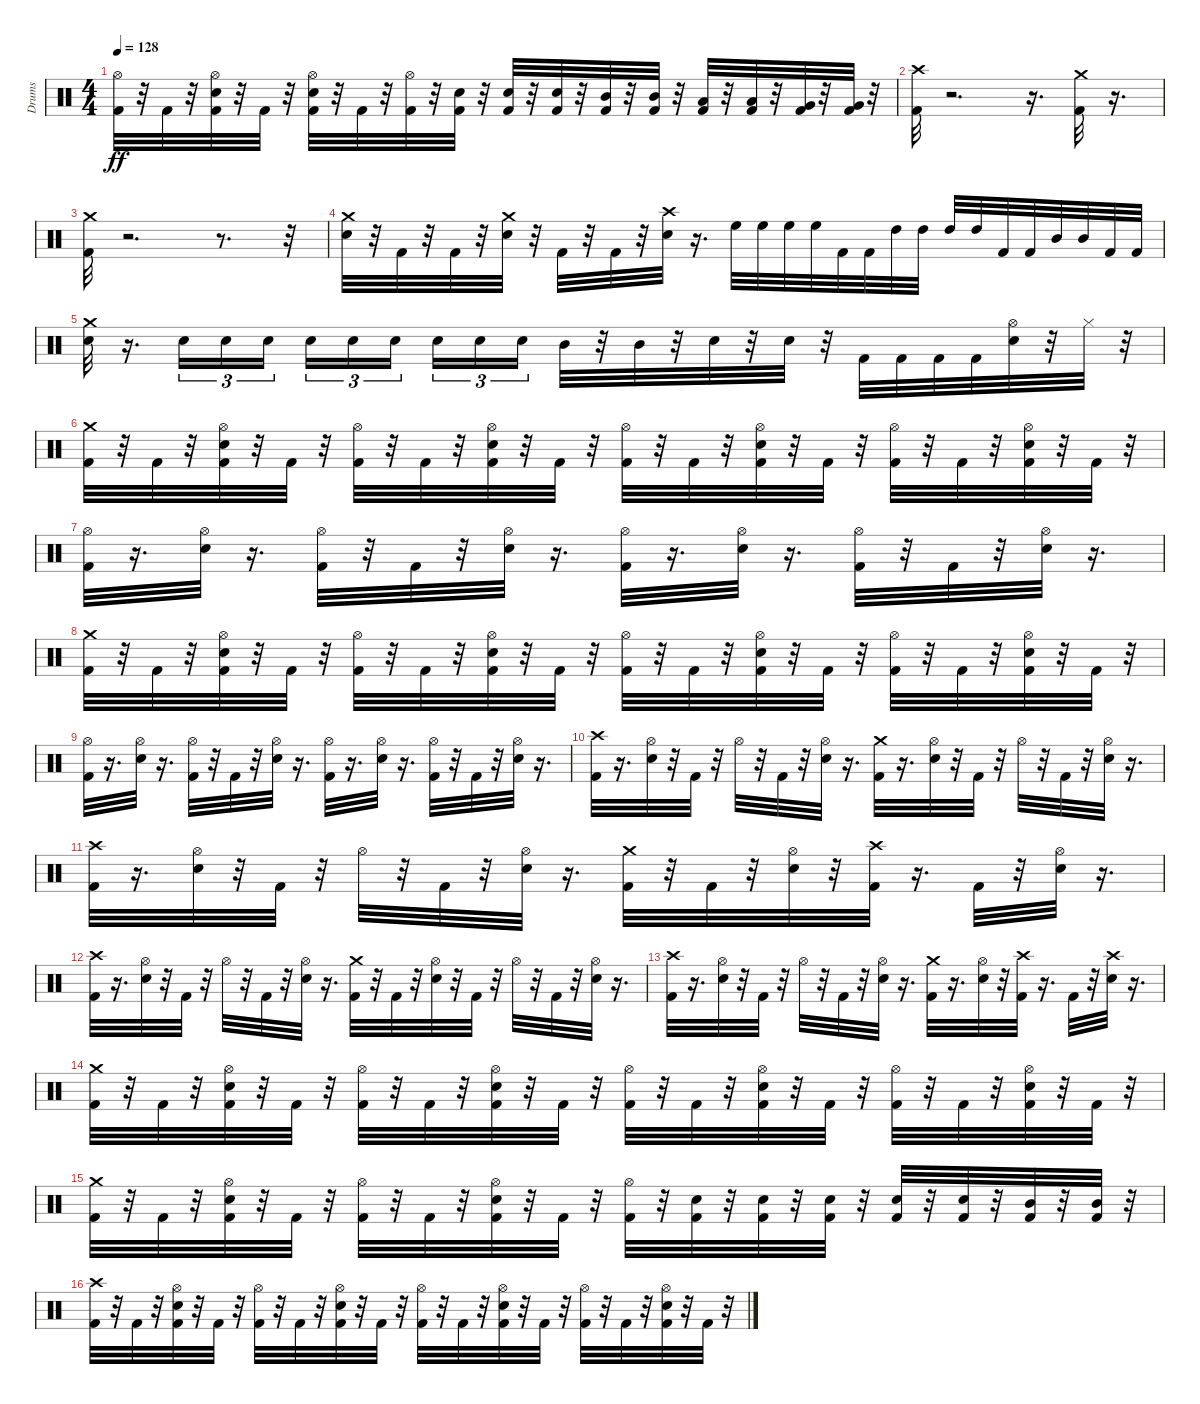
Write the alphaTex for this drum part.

\track ("Drums" "Drums") {instrument percussion}
\staff {score}
\articulation defaults
\ts (4 4)
\tempo 128
\clef neutral
\ks c
("Hi-Hat (open)" "Kick (hit) 2").32{dy ff} r.32 "Kick (hit) 2".32 r.32 ("Kick (hit) 2" "Hi-Hat (open)" "Snare (hit) 2").32 r.32 "Kick (hit) 2".32 r.32 ("Hi-Hat (open)" "Snare (hit) 2" "Kick (hit) 2").32 r.32 "Kick (hit) 2".32 r.32 ("Hi-Hat (open)" "Kick (hit) 2").32 r.32 ("Snare (hit) 2" "Kick (hit) 2").32 r.32 ("Snare (hit) 2" "Kick (hit) 2").32 r.32 ("Kick (hit) 2" "Snare (hit) 2").32 r.32 ("Mid Tom (hit)" "Kick (hit) 2").32 r.32 ("Kick (hit) 2" "Mid Tom (hit)").32 r.32 ("Kick (hit) 2" "Low Tom (hit)").32 r.32 ("Low Tom (hit)" "Kick (hit) 2").32 r.32 ("Kick (hit) 2" "Very Low Tom (hit)").32 r.32 ("Kick (hit) 2" "Very Low Tom (hit)").32 r.32 |
("Kick (hit) 2" "Crash high (hit)").32 r.2{d} r.16{d} ("Kick (hit) 2" "Crash medium (hit)").32 r.16{d} |
("Kick (hit) 2" "Crash medium (hit)").32 r.2{d} r.8{d} r.32 |
("Snare (hit) 2" "Crash medium (hit)").32 r.32 "Kick (hit) 2".32 r.32 "Kick (hit) 2".32 r.32 ("Snare (hit) 2" "Crash medium (hit)").32 r.32 "Kick (hit) 2".32 r.32 "Kick (hit) 2".32 r.32 ("Crash high (hit)" "Snare (hit) 2").32 r.16{d} "High Floor Tom (hit)".32 "High Floor Tom (hit)".32 "High Floor Tom (hit)".32 "High Floor Tom (hit)".32 "Kick (hit) 2".32 "Kick (hit) 2".32 "High Tom (hit)".32 "High Tom (hit)".32 "High Tom (hit)".32 "High Tom (hit)".32 "Kick (hit) 2".32 "Kick (hit) 2".32 "Mid Tom (hit)".32 "Mid Tom (hit)".32 "Kick (hit) 2".32 "Kick (hit) 2".32 |
("Crash medium (hit)" "Snare (hit) 2").32 r.16{d} "Snare (hit) 2".16{tu (3 2)} "Snare (hit) 2".16{tu (3 2)} "Snare (hit) 2".16{tu (3 2)} "Snare (hit) 2".16{tu (3 2)} "Snare (hit) 2".16{tu (3 2)} "Snare (hit) 2".16{tu (3 2)} "Snare (hit) 2".16{tu (3 2)} "Snare (hit) 2".16{tu (3 2)} "Snare (hit) 2".16{tu (3 2)} "Mid Tom (hit)".32 r.32 "Mid Tom (hit)".32 r.32 "Snare (hit) 2".32 r.32 "Snare (hit) 2".32 r.32 "Kick (hit) 2".32 "Kick (hit) 2".32 "Kick (hit) 2".32 "Kick (hit) 2".32 ("Snare (hit) 2" "Hi-Hat (open)").32 r.32 "Hi-Hat (closed)".32 r.32 |
("Crash medium (hit)" "Kick (hit) 2").32 r.32 "Kick (hit) 2".32 r.32 ("Snare (hit) 2" "Kick (hit) 2" "Hi-Hat (open)").32 r.32 "Kick (hit) 2".32 r.32 ("Kick (hit) 2" "Hi-Hat (open)").32 r.32 "Kick (hit) 2".32 r.32 ("Snare (hit) 2" "Kick (hit) 2" "Hi-Hat (open)").32 r.32 "Kick (hit) 2".32 r.32 ("Kick (hit) 2" "Hi-Hat (open)").32 r.32 "Kick (hit) 2".32 r.32 ("Snare (hit) 2" "Kick (hit) 2" "Hi-Hat (open)").32 r.32 "Kick (hit) 2".32 r.32 ("Kick (hit) 2" "Hi-Hat (open)").32 r.32 "Kick (hit) 2".32 r.32 ("Snare (hit) 2" "Kick (hit) 2" "Hi-Hat (open)").32 r.32 "Kick (hit) 2".32 r.32 |
("Hi-Hat (open)" "Kick (hit) 2").32 r.16{d} ("Snare (hit) 2" "Hi-Hat (open)").32 r.16{d} ("Kick (hit) 2" "Hi-Hat (open)").32 r.32 "Kick (hit) 2".32 r.32 ("Snare (hit) 2" "Hi-Hat (open)").32 r.16{d} ("Kick (hit) 2" "Hi-Hat (open)").32 r.16{d} ("Snare (hit) 2" "Hi-Hat (open)").32 r.16{d} ("Hi-Hat (open)" "Kick (hit) 2").32 r.32 "Kick (hit) 2".32 r.32 ("Snare (hit) 2" "Hi-Hat (open)").32 r.16{d} |
("Crash medium (hit)" "Kick (hit) 2").32 r.32 "Kick (hit) 2".32 r.32 ("Snare (hit) 2" "Kick (hit) 2" "Hi-Hat (open)").32 r.32 "Kick (hit) 2".32 r.32 ("Kick (hit) 2" "Hi-Hat (open)").32 r.32 "Kick (hit) 2".32 r.32 ("Snare (hit) 2" "Kick (hit) 2" "Hi-Hat (open)").32 r.32 "Kick (hit) 2".32 r.32 ("Kick (hit) 2" "Hi-Hat (open)").32 r.32 "Kick (hit) 2".32 r.32 ("Snare (hit) 2" "Kick (hit) 2" "Hi-Hat (open)").32 r.32 "Kick (hit) 2".32 r.32 ("Kick (hit) 2" "Hi-Hat (open)").32 r.32 "Kick (hit) 2".32 r.32 ("Snare (hit) 2" "Kick (hit) 2" "Hi-Hat (open)").32 r.32 "Kick (hit) 2".32 r.32 |
("Hi-Hat (open)" "Kick (hit) 2").32 r.16{d} ("Snare (hit) 2" "Hi-Hat (open)").32 r.16{d} ("Kick (hit) 2" "Hi-Hat (open)").32 r.32 "Kick (hit) 2".32 r.32 ("Snare (hit) 2" "Hi-Hat (open)").32 r.16{d} ("Kick (hit) 2" "Hi-Hat (open)").32 r.16{d} ("Snare (hit) 2" "Hi-Hat (open)").32 r.16{d} ("Kick (hit) 2" "Hi-Hat (open)").32 r.32 "Kick (hit) 2".32 r.32 ("Snare (hit) 2" "Hi-Hat (open)").32 r.16{d} |
("Kick (hit) 2" "Crash high (hit)").32 r.16{d} ("Hi-Hat (open)" "Snare (hit) 2").32 r.32 "Kick (hit) 2".32 r.32 "Hi-Hat (open)".32 r.32 "Kick (hit) 2".32 r.32 ("Hi-Hat (open)" "Snare (hit) 2").32 r.16{d} ("Crash medium (hit)" "Kick (hit) 2").32 r.16{d} ("Hi-Hat (open)" "Snare (hit) 2").32 r.32 "Kick (hit) 2".32 r.32 "Hi-Hat (open)".32 r.32 "Kick (hit) 2".32 r.32 ("Hi-Hat (open)" "Snare (hit) 2").32 r.16{d} |
("Kick (hit) 2" "Crash high (hit)").32 r.16{d} ("Hi-Hat (open)" "Snare (hit) 2").32 r.32 "Kick (hit) 2".32 r.32 "Hi-Hat (open)".32 r.32 "Kick (hit) 2".32 r.32 ("Hi-Hat (open)" "Snare (hit) 2").32 r.16{d} ("Crash medium (hit)" "Kick (hit) 2").32 r.32 "Kick (hit) 2".32 r.32 ("Hi-Hat (open)" "Snare (hit) 2").32 r.32 ("Kick (hit) 2" "Crash high (hit)").32 r.16{d} "Kick (hit) 2".32 r.32 ("Hi-Hat (open)" "Snare (hit) 2").32 r.16{d} |
("Kick (hit) 2" "Crash high (hit)").32 r.16{d} ("Hi-Hat (open)" "Snare (hit) 2").32 r.32 "Kick (hit) 2".32 r.32 "Hi-Hat (open)".32 r.32 "Kick (hit) 2".32 r.32 ("Hi-Hat (open)" "Snare (hit) 2").32 r.16{d} ("Crash medium (hit)" "Kick (hit) 2").32 r.32 "Kick (hit) 2".32 r.32 ("Hi-Hat (open)" "Snare (hit) 2").32 r.32 "Kick (hit) 2".32 r.32 "Hi-Hat (open)".32 r.32 "Kick (hit) 2".32 r.32 ("Hi-Hat (open)" "Snare (hit) 2").32 r.16{d} |
("Kick (hit) 2" "Crash high (hit)").32 r.16{d} ("Hi-Hat (open)" "Snare (hit) 2").32 r.32 "Kick (hit) 2".32 r.32 "Hi-Hat (open)".32 r.32 "Kick (hit) 2".32 r.32 ("Hi-Hat (open)" "Snare (hit) 2").32 r.16{d} ("Crash medium (hit)" "Kick (hit) 2").32 r.16{d} ("Hi-Hat (open)" "Snare (hit) 2").32 r.32 ("Crash high (hit)" "Kick (hit) 2").32 r.16{d} "Kick (hit) 2".32 r.32 ("Crash high (hit)" "Snare (hit) 2").32 r.16{d} |
("Kick (hit) 2" "Crash medium (hit)").32 r.32 "Kick (hit) 2".32 r.32 ("Kick (hit) 2" "Hi-Hat (open)" "Snare (hit) 2").32 r.32 "Kick (hit) 2".32 r.32 ("Kick (hit) 2" "Hi-Hat (open)").32 r.32 "Kick (hit) 2".32 r.32 ("Kick (hit) 2" "Hi-Hat (open)" "Snare (hit) 2").32 r.32 "Kick (hit) 2".32 r.32 ("Kick (hit) 2" "Hi-Hat (open)").32 r.32 "Kick (hit) 2".32 r.32 ("Kick (hit) 2" "Hi-Hat (open)" "Snare (hit) 2").32 r.32 "Kick (hit) 2".32 r.32 ("Kick (hit) 2" "Hi-Hat (open)").32 r.32 "Kick (hit) 2".32 r.32 ("Kick (hit) 2" "Hi-Hat (open)" "Snare (hit) 2").32 r.32 "Kick (hit) 2".32 r.32 |
("Kick (hit) 2" "Crash medium (hit)").32 r.32 "Kick (hit) 2".32 r.32 ("Kick (hit) 2" "Hi-Hat (open)" "Snare (hit) 2").32 r.32 "Kick (hit) 2".32 r.32 ("Kick (hit) 2" "Hi-Hat (open)").32 r.32 "Kick (hit) 2".32 r.32 ("Kick (hit) 2" "Hi-Hat (open)" "Snare (hit) 2").32 r.32 "Kick (hit) 2".32 r.32 ("Kick (hit) 2" "Hi-Hat (open)").32 r.32 ("Kick (hit) 2" "Snare (hit) 2").32 r.32 ("Kick (hit) 2" "Snare (hit) 2").32 r.32 ("Kick (hit) 2" "Snare (hit) 2").32 r.32 ("Kick (hit) 2" "Snare (hit) 2").32 r.32 ("Kick (hit) 2" "Snare (hit) 2").32 r.32 ("Kick (hit) 2" "Mid Tom (hit)").32 r.32 ("Kick (hit) 2" "Mid Tom (hit)").32 r.32 |
("Kick (hit) 2" "Crash high (hit)").32 r.32 "Kick (hit) 2".32 r.32 ("Snare (hit) 2" "Kick (hit) 2" "Hi-Hat (open)").32 r.32 "Kick (hit) 2".32 r.32 ("Kick (hit) 2" "Hi-Hat (open)").32 r.32 "Kick (hit) 2".32 r.32 ("Snare (hit) 2" "Kick (hit) 2" "Hi-Hat (open)").32 r.32 "Kick (hit) 2".32 r.32 ("Kick (hit) 2" "Hi-Hat (open)").32 r.32 "Kick (hit) 2".32 r.32 ("Snare (hit) 2" "Kick (hit) 2" "Hi-Hat (open)").32 r.32 "Kick (hit) 2".32 r.32 ("Kick (hit) 2" "Hi-Hat (open)").32 r.32 "Kick (hit) 2".32 r.32 ("Snare (hit) 2" "Kick (hit) 2" "Hi-Hat (open)").32 r.32 "Kick (hit) 2".32 r.32
